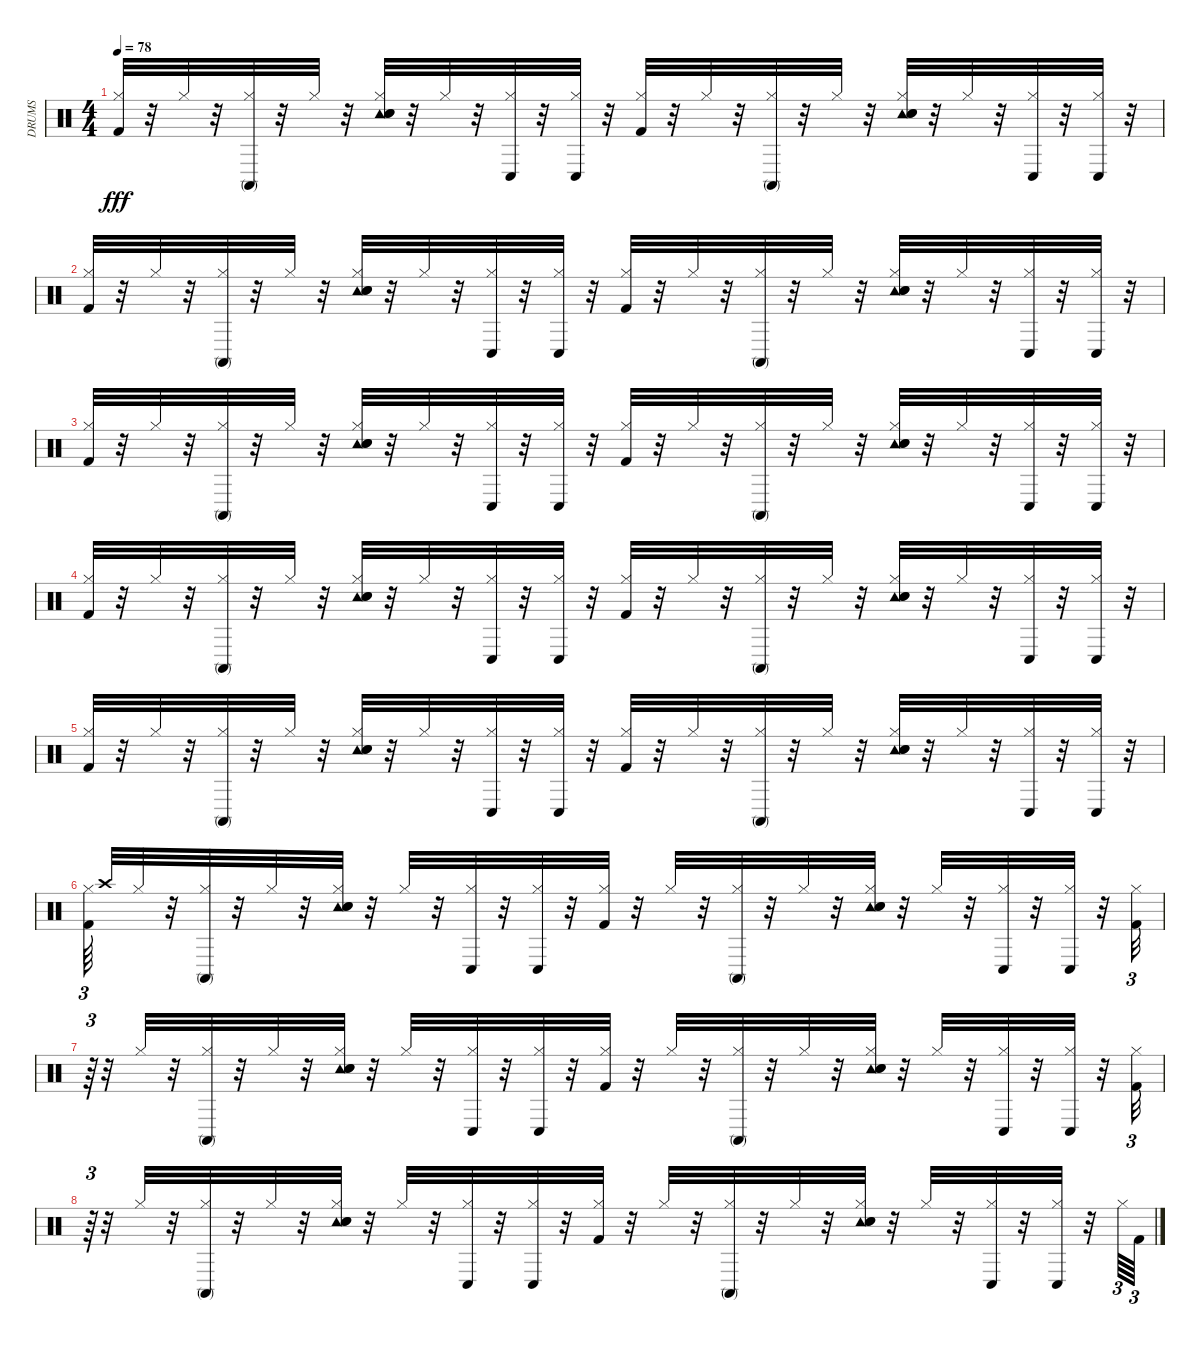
\track ("DRUMS" "DRUMS") {instrument percussion}
\staff {score}
\articulation defaults
\ts (4 4)
\tempo 78
\clef neutral
\ks c
("Hi-Hat (closed)" "Kick (hit) 2").32{dy fff} r.32 "Hi-Hat (closed)".32 r.32 ("Conga high (mute)" "Hi-Hat (closed)").32 r.32 "Hi-Hat (closed)".32 r.32 ("Hi-Hat (closed)" "Tambourine (hit)" "Snare (hit)" "Snare (hit) 2").32 r.32 "Hi-Hat (closed)".32 r.32 ("Conga low (hit)" "Hi-Hat (closed)").32 r.32 ("Conga low (hit)" "Hi-Hat (closed)").32 r.32 ("Hi-Hat (closed)" "Kick (hit) 2").32 r.32 "Hi-Hat (closed)".32 r.32 ("Conga high (mute)" "Hi-Hat (closed)").32 r.32 "Hi-Hat (closed)".32 r.32 ("Hi-Hat (closed)" "Tambourine (hit)" "Snare (hit) 2" "Snare (hit)").32 r.32 "Hi-Hat (closed)".32 r.32 ("Conga low (hit)" "Hi-Hat (closed)").32 r.32 ("Conga low (hit)" "Hi-Hat (closed)").32 r.32 |
("Hi-Hat (closed)" "Kick (hit) 2").32 r.32 "Hi-Hat (closed)".32 r.32 ("Conga high (mute)" "Hi-Hat (closed)").32 r.32 "Hi-Hat (closed)".32 r.32 ("Hi-Hat (closed)" "Tambourine (hit)" "Snare (hit)" "Snare (hit) 2").32 r.32 "Hi-Hat (closed)".32 r.32 ("Conga low (hit)" "Hi-Hat (closed)").32 r.32 ("Conga low (hit)" "Hi-Hat (closed)").32 r.32 ("Hi-Hat (closed)" "Kick (hit) 2").32 r.32 "Hi-Hat (closed)".32 r.32 ("Conga high (mute)" "Hi-Hat (closed)").32 r.32 "Hi-Hat (closed)".32 r.32 ("Hi-Hat (closed)" "Tambourine (hit)" "Snare (hit) 2" "Snare (hit)").32 r.32 "Hi-Hat (closed)".32 r.32 ("Conga low (hit)" "Hi-Hat (closed)").32 r.32 ("Conga low (hit)" "Hi-Hat (closed)").32 r.32 |
("Hi-Hat (closed)" "Kick (hit) 2").32 r.32 "Hi-Hat (closed)".32 r.32 ("Conga high (mute)" "Hi-Hat (closed)").32 r.32 "Hi-Hat (closed)".32 r.32 ("Hi-Hat (closed)" "Tambourine (hit)" "Snare (hit)" "Snare (hit) 2").32 r.32 "Hi-Hat (closed)".32 r.32 ("Conga low (hit)" "Hi-Hat (closed)").32 r.32 ("Conga low (hit)" "Hi-Hat (closed)").32 r.32 ("Hi-Hat (closed)" "Kick (hit) 2").32 r.32 "Hi-Hat (closed)".32 r.32 ("Conga high (mute)" "Hi-Hat (closed)").32 r.32 "Hi-Hat (closed)".32 r.32 ("Hi-Hat (closed)" "Tambourine (hit)" "Snare (hit) 2" "Snare (hit)").32 r.32 "Hi-Hat (closed)".32 r.32 ("Conga low (hit)" "Hi-Hat (closed)").32 r.32 ("Conga low (hit)" "Hi-Hat (closed)").32 r.32 |
("Hi-Hat (closed)" "Kick (hit) 2").32 r.32 "Hi-Hat (closed)".32 r.32 ("Conga high (mute)" "Hi-Hat (closed)").32 r.32 "Hi-Hat (closed)".32 r.32 ("Hi-Hat (closed)" "Tambourine (hit)" "Snare (hit)" "Snare (hit) 2").32 r.32 "Hi-Hat (closed)".32 r.32 ("Conga low (hit)" "Hi-Hat (closed)").32 r.32 ("Conga low (hit)" "Hi-Hat (closed)").32 r.32 ("Hi-Hat (closed)" "Kick (hit) 2").32 r.32 "Hi-Hat (closed)".32 r.32 ("Conga high (mute)" "Hi-Hat (closed)").32 r.32 "Hi-Hat (closed)".32 r.32 ("Hi-Hat (closed)" "Tambourine (hit)" "Snare (hit) 2" "Snare (hit)").32 r.32 "Hi-Hat (closed)".32 r.32 ("Conga low (hit)" "Hi-Hat (closed)").32 r.32 ("Conga low (hit)" "Hi-Hat (closed)").32 r.32 |
("Hi-Hat (closed)" "Kick (hit) 2").32 r.32 "Hi-Hat (closed)".32 r.32 ("Conga high (mute)" "Hi-Hat (closed)").32 r.32 "Hi-Hat (closed)".32 r.32 ("Hi-Hat (closed)" "Tambourine (hit)" "Snare (hit)" "Snare (hit) 2").32 r.32 "Hi-Hat (closed)".32 r.32 ("Conga low (hit)" "Hi-Hat (closed)").32 r.32 ("Conga low (hit)" "Hi-Hat (closed)").32 r.32 ("Hi-Hat (closed)" "Kick (hit) 2").32 r.32 "Hi-Hat (closed)".32 r.32 ("Conga high (mute)" "Hi-Hat (closed)").32 r.32 "Hi-Hat (closed)".32 r.32 ("Hi-Hat (closed)" "Tambourine (hit)" "Snare (hit) 2" "Snare (hit)").32 r.32 "Hi-Hat (closed)".32 r.32 ("Conga low (hit)" "Hi-Hat (closed)").32 r.32 ("Conga low (hit)" "Hi-Hat (closed)").32 r.32 |
("Hi-Hat (closed)" "Kick (hit) 2").64{tu (3 2)} "Crash high (hit)".32 "Hi-Hat (closed)".32 r.32 ("Conga high (mute)" "Hi-Hat (closed)").32 r.32 "Hi-Hat (closed)".32 r.32 ("Hi-Hat (closed)" "Tambourine (hit)" "Snare (hit)" "Snare (hit) 2").32 r.32 "Hi-Hat (closed)".32 r.32 ("Conga low (hit)" "Hi-Hat (closed)").32 r.32 ("Conga low (hit)" "Hi-Hat (closed)").32 r.32 ("Hi-Hat (closed)" "Kick (hit) 2").32 r.32 "Hi-Hat (closed)".32 r.32 ("Conga high (mute)" "Hi-Hat (closed)").32 r.32 "Hi-Hat (closed)".32 r.32 ("Hi-Hat (closed)" "Tambourine (hit)" "Snare (hit) 2" "Snare (hit)").32 r.32 "Hi-Hat (closed)".32 r.32 ("Conga low (hit)" "Hi-Hat (closed)").32 r.32 ("Conga low (hit)" "Hi-Hat (closed)").32 r.32 ("Hi-Hat (closed)" "Kick (hit) 2").32{tu (3 2)} |
r.64{tu (3 2)} r.32 "Hi-Hat (closed)".32 r.32 ("Conga high (mute)" "Hi-Hat (closed)").32 r.32 "Hi-Hat (closed)".32 r.32 ("Hi-Hat (closed)" "Tambourine (hit)" "Snare (hit)" "Snare (hit) 2").32 r.32 "Hi-Hat (closed)".32 r.32 ("Conga low (hit)" "Hi-Hat (closed)").32 r.32 ("Conga low (hit)" "Hi-Hat (closed)").32 r.32 ("Hi-Hat (closed)" "Kick (hit) 2").32 r.32 "Hi-Hat (closed)".32 r.32 ("Conga high (mute)" "Hi-Hat (closed)").32 r.32 "Hi-Hat (closed)".32 r.32 ("Hi-Hat (closed)" "Tambourine (hit)" "Snare (hit) 2" "Snare (hit)").32 r.32 "Hi-Hat (closed)".32 r.32 ("Conga low (hit)" "Hi-Hat (closed)").32 r.32 ("Conga low (hit)" "Hi-Hat (closed)").32 r.32 ("Hi-Hat (closed)" "Kick (hit) 2").32{tu (3 2)} |
r.64{tu (3 2)} r.32 "Hi-Hat (closed)".32 r.32 ("Conga high (mute)" "Hi-Hat (closed)").32 r.32 "Hi-Hat (closed)".32 r.32 ("Hi-Hat (closed)" "Tambourine (hit)" "Snare (hit)" "Snare (hit) 2").32 r.32 "Hi-Hat (closed)".32 r.32 ("Conga low (hit)" "Hi-Hat (closed)").32 r.32 ("Conga low (hit)" "Hi-Hat (closed)").32 r.32 ("Hi-Hat (closed)" "Kick (hit) 2").32 r.32 "Hi-Hat (closed)".32 r.32 ("Conga high (mute)" "Hi-Hat (closed)").32 r.32 "Hi-Hat (closed)".32 r.32 ("Hi-Hat (closed)" "Tambourine (hit)" "Snare (hit) 2" "Snare (hit)").32 r.32 "Hi-Hat (closed)".32 r.32 ("Conga low (hit)" "Hi-Hat (closed)").32 r.32 ("Conga low (hit)" "Hi-Hat (closed)").32 r.32 "Hi-Hat (closed)".64{tu (3 2)} "Kick (hit) 2".64{tu (3 2)}
